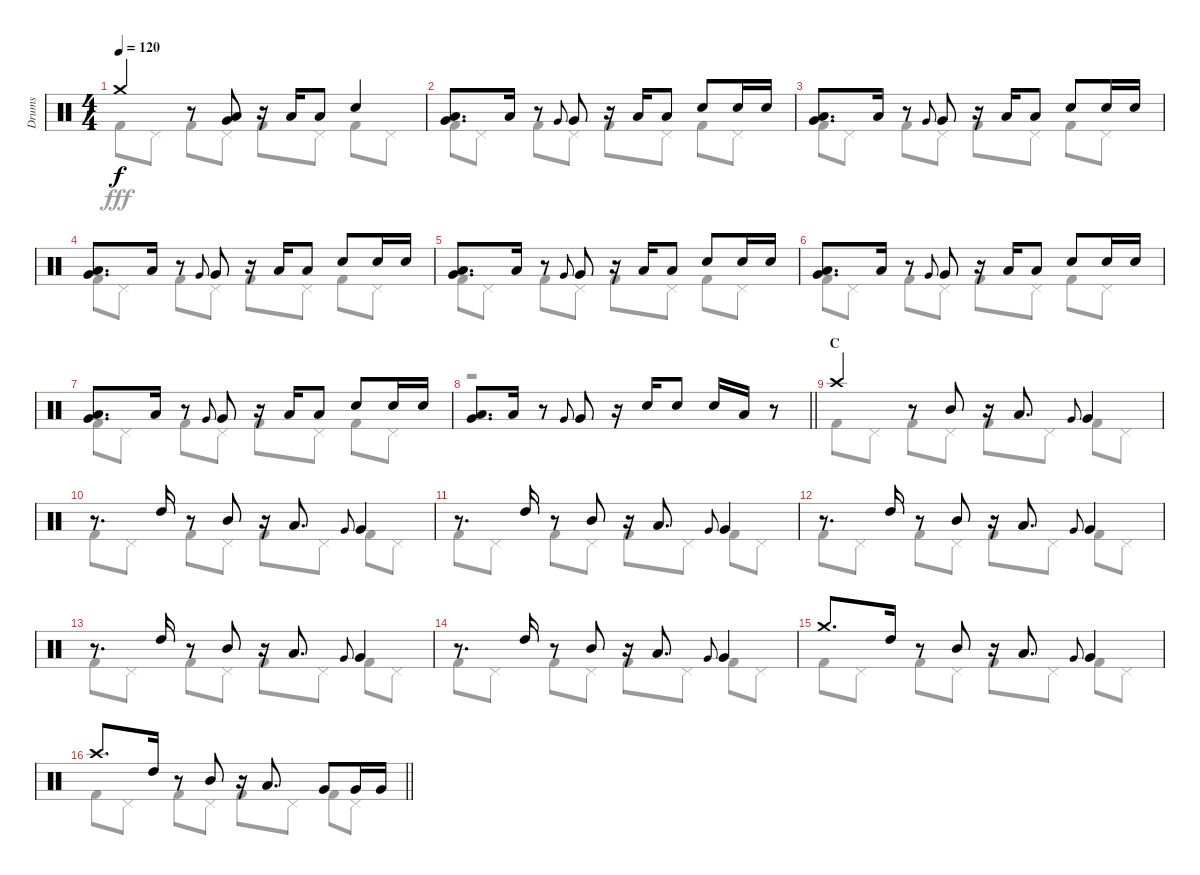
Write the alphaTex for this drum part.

\track ("Drums" "Drums") {instrument percussion}
\staff {score}
\articulation defaults
\voice
\ts (4 4)
\tempo 120
\clef neutral
\ks c "Crash medium (hit)".4{dy f}
r.8 ("Low Tom (hit)" "Very Low Tom (hit)").8 r.16 "Low Tom (hit)".16 "Low Tom (hit)".8 "Snare (hit) 2".4 |
("Low Tom (hit)" "Very Low Tom (hit)").8{d} "Low Tom (hit)".16 r.8 "Very Low Tom (hit)".8{gr onbeat} "Very Low Tom (hit)".8 r.16 "Low Tom (hit)".16 "Low Tom (hit)".8 "Snare (hit) 2".8 "Snare (hit) 2".16 "Snare (hit) 2".16 |
("Low Tom (hit)" "Very Low Tom (hit)").8{d} "Low Tom (hit)".16 r.8 "Very Low Tom (hit)".8{gr onbeat} "Very Low Tom (hit)".8 r.16 "Low Tom (hit)".16 "Low Tom (hit)".8 "Snare (hit) 2".8 "Snare (hit) 2".16 "Snare (hit) 2".16 |
("Low Tom (hit)" "Very Low Tom (hit)").8{d} "Low Tom (hit)".16 r.8 "Very Low Tom (hit)".8{gr onbeat} "Very Low Tom (hit)".8 r.16 "Low Tom (hit)".16 "Low Tom (hit)".8 "Snare (hit) 2".8 "Snare (hit) 2".16 "Snare (hit) 2".16 |
("Low Tom (hit)" "Very Low Tom (hit)").8{d} "Low Tom (hit)".16 r.8 "Very Low Tom (hit)".8{gr onbeat} "Very Low Tom (hit)".8 r.16 "Low Tom (hit)".16 "Low Tom (hit)".8 "Snare (hit) 2".8 "Snare (hit) 2".16 "Snare (hit) 2".16 |
("Low Tom (hit)" "Very Low Tom (hit)").8{d} "Low Tom (hit)".16 r.8 "Very Low Tom (hit)".8{gr onbeat} "Very Low Tom (hit)".8 r.16 "Low Tom (hit)".16 "Low Tom (hit)".8 "Snare (hit) 2".8 "Snare (hit) 2".16 "Snare (hit) 2".16 |
("Low Tom (hit)" "Very Low Tom (hit)").8{d} "Low Tom (hit)".16 r.8 "Very Low Tom (hit)".8{gr onbeat} "Very Low Tom (hit)".8 r.16 "Low Tom (hit)".16 "Low Tom (hit)".8 "Snare (hit) 2".8 "Snare (hit) 2".16 "Snare (hit) 2".16 |
\barLineRight lightlight
("Low Tom (hit)" "Very Low Tom (hit)").8{d} "Low Tom (hit)".16 r.8 "Very Low Tom (hit)".8{gr onbeat} "Very Low Tom (hit)".8 r.16 "Snare (hit) 2".16 "Snare (hit) 2".8 "Snare (hit) 2".16 "Low Tom (hit)".16 r.8 |
\section ("" "C")
"Crash high (hit)".4 r.8 "Mid Tom (hit)".8 r.16 "Low Tom (hit)".8{d} "Very Low Tom (hit)".8{gr onbeat} "Very Low Tom (hit)".4 |
r.8{d} "High Tom (hit)".16 r.8 "Mid Tom (hit)".8 r.16 "Low Tom (hit)".8{d} "Very Low Tom (hit)".8{gr onbeat} "Very Low Tom (hit)".4 |
r.8{d} "High Tom (hit)".16 r.8 "Mid Tom (hit)".8 r.16 "Low Tom (hit)".8{d} "Very Low Tom (hit)".8{gr onbeat} "Very Low Tom (hit)".4 |
r.8{d} "High Tom (hit)".16 r.8 "Mid Tom (hit)".8 r.16 "Low Tom (hit)".8{d} "Very Low Tom (hit)".8{gr onbeat} "Very Low Tom (hit)".4 |
r.8{d} "High Tom (hit)".16 r.8 "Mid Tom (hit)".8 r.16 "Low Tom (hit)".8{d} "Very Low Tom (hit)".8{gr onbeat} "Very Low Tom (hit)".4 |
r.8{d} "High Tom (hit)".16 r.8 "Mid Tom (hit)".8 r.16 "Low Tom (hit)".8{d} "Very Low Tom (hit)".8{gr onbeat} "Very Low Tom (hit)".4 |
"Crash medium (hit)".8{d} "High Tom (hit)".16 r.8 "Mid Tom (hit)".8 r.16 "Low Tom (hit)".8{d} "Very Low Tom (hit)".8{gr onbeat} "Very Low Tom (hit)".4 |
\barLineRight lightlight "Crash high (hit)".8{d} "High Tom (hit)".16
r.8 "Mid Tom (hit)".8 r.16 "Low Tom (hit)".8{d} "Very Low Tom (hit)".8 "Very Low Tom (hit)".16 "Very Low Tom (hit)".16
\voice
\clef neutral
\ottava regular
\simile none
\ks c "Kick (hit) 2".8{dy fff} "Pedal Hi-Hat (hit)".8 "Kick (hit) 2".8 "Pedal Hi-Hat (hit)".8 "Kick (hit) 2".8 "Pedal Hi-Hat (hit)".8 "Kick (hit) 2".8 "Pedal Hi-Hat (hit)".8
|
"Kick (hit) 2".8 "Pedal Hi-Hat (hit)".8 "Kick (hit) 2".8 "Pedal Hi-Hat (hit)".8 "Kick (hit) 2".8 "Pedal Hi-Hat (hit)".8 "Kick (hit) 2".8 "Pedal Hi-Hat (hit)".8 |
"Kick (hit) 2".8 "Pedal Hi-Hat (hit)".8 "Kick (hit) 2".8 "Pedal Hi-Hat (hit)".8 "Kick (hit) 2".8 "Pedal Hi-Hat (hit)".8 "Kick (hit) 2".8 "Pedal Hi-Hat (hit)".8 |
"Kick (hit) 2".8 "Pedal Hi-Hat (hit)".8 "Kick (hit) 2".8 "Pedal Hi-Hat (hit)".8 "Kick (hit) 2".8 "Pedal Hi-Hat (hit)".8 "Kick (hit) 2".8 "Pedal Hi-Hat (hit)".8 |
"Kick (hit) 2".8 "Pedal Hi-Hat (hit)".8 "Kick (hit) 2".8 "Pedal Hi-Hat (hit)".8 "Kick (hit) 2".8 "Pedal Hi-Hat (hit)".8 "Kick (hit) 2".8 "Pedal Hi-Hat (hit)".8 |
"Kick (hit) 2".8 "Pedal Hi-Hat (hit)".8 "Kick (hit) 2".8 "Pedal Hi-Hat (hit)".8 "Kick (hit) 2".8 "Pedal Hi-Hat (hit)".8 "Kick (hit) 2".8 "Pedal Hi-Hat (hit)".8 |
"Kick (hit) 2".8 "Pedal Hi-Hat (hit)".8 "Kick (hit) 2".8 "Pedal Hi-Hat (hit)".8 "Kick (hit) 2".8 "Pedal Hi-Hat (hit)".8 "Kick (hit) 2".8 "Pedal Hi-Hat (hit)".8 |
\barLineRight lightlight
r.1 |
"Kick (hit) 2".8 "Pedal Hi-Hat (hit)".8 "Kick (hit) 2".8 "Pedal Hi-Hat (hit)".8 "Kick (hit) 2".8 "Pedal Hi-Hat (hit)".8 "Kick (hit) 2".8 "Pedal Hi-Hat (hit)".8 |
"Kick (hit) 2".8 "Pedal Hi-Hat (hit)".8 "Kick (hit) 2".8 "Pedal Hi-Hat (hit)".8 "Kick (hit) 2".8 "Pedal Hi-Hat (hit)".8 "Kick (hit) 2".8 "Pedal Hi-Hat (hit)".8 |
"Kick (hit) 2".8 "Pedal Hi-Hat (hit)".8 "Kick (hit) 2".8 "Pedal Hi-Hat (hit)".8 "Kick (hit) 2".8 "Pedal Hi-Hat (hit)".8 "Kick (hit) 2".8 "Pedal Hi-Hat (hit)".8 |
"Kick (hit) 2".8 "Pedal Hi-Hat (hit)".8 "Kick (hit) 2".8 "Pedal Hi-Hat (hit)".8 "Kick (hit) 2".8 "Pedal Hi-Hat (hit)".8 "Kick (hit) 2".8 "Pedal Hi-Hat (hit)".8 |
"Kick (hit) 2".8 "Pedal Hi-Hat (hit)".8 "Kick (hit) 2".8 "Pedal Hi-Hat (hit)".8 "Kick (hit) 2".8 "Pedal Hi-Hat (hit)".8 "Kick (hit) 2".8 "Pedal Hi-Hat (hit)".8 |
"Kick (hit) 2".8 "Pedal Hi-Hat (hit)".8 "Kick (hit) 2".8 "Pedal Hi-Hat (hit)".8 "Kick (hit) 2".8 "Pedal Hi-Hat (hit)".8 "Kick (hit) 2".8 "Pedal Hi-Hat (hit)".8 |
"Kick (hit) 2".8 "Pedal Hi-Hat (hit)".8 "Kick (hit) 2".8 "Pedal Hi-Hat (hit)".8 "Kick (hit) 2".8 "Pedal Hi-Hat (hit)".8 "Kick (hit) 2".8 "Pedal Hi-Hat (hit)".8 |
\barLineRight lightlight "Kick (hit) 2".8 "Pedal Hi-Hat (hit)".8 "Kick (hit) 2".8 "Pedal Hi-Hat (hit)".8 "Kick (hit) 2".8 "Pedal Hi-Hat (hit)".8 "Kick (hit) 2".8 "Pedal Hi-Hat (hit)".8
